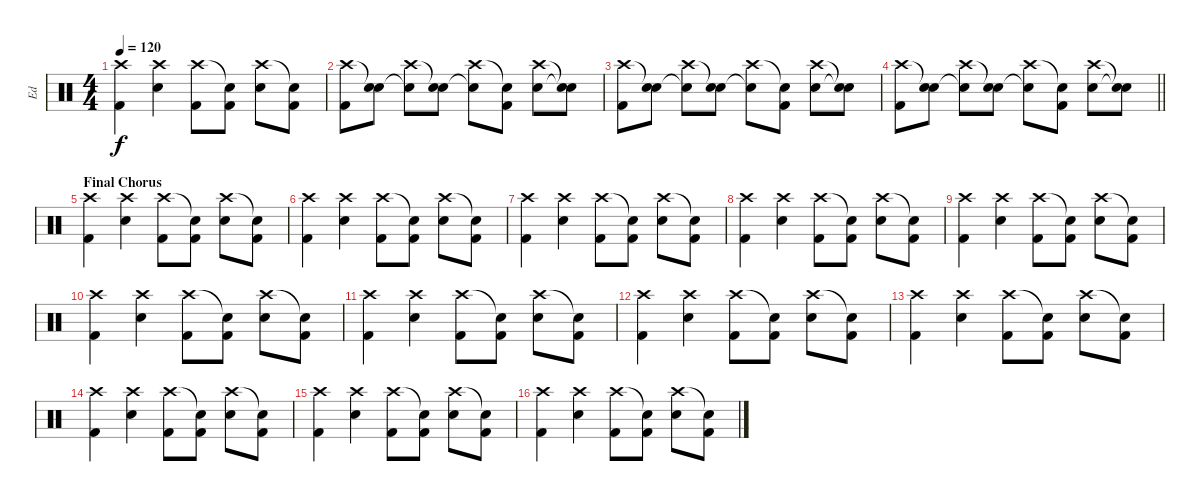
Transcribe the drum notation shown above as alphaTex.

\track ("Ed" "Ed") {instrument percussion}
\staff {score}
\articulation defaults
\ts (4 4)
\tempo 120
\clef neutral
\ks c
("Crash high (hit)" "Kick (hit) 2").4{dy f} ("Crash high (hit)" "Snare (hit) 2").4 ("Crash high (hit)" "Kick (hit) 2").8 ("Snare (hit)"{t} "Kick (hit) 2").8 ("Crash high (hit)" "Snare (hit) 2").8 ("Snare (hit)"{t} "Kick (hit) 2").8 |
("Crash high (hit)" "Kick (hit) 2").8 ("Snare (hit)"{t} "Snare (hit) 2").8 ("Crash high (hit)" "Snare (hit)"{t}).8 ("Snare (hit)"{t} "Snare (hit) 2").8 ("Crash high (hit)" "Snare (hit)"{t}).8 ("Snare (hit)"{t} "Kick (hit) 2").8 ("Crash high (hit)" "Snare (hit) 2").8 ("Snare (hit)"{t} "Snare (hit)"{t}).8 |
("Crash high (hit)" "Kick (hit) 2").8 ("Snare (hit)"{t} "Snare (hit) 2").8 ("Crash high (hit)" "Snare (hit)"{t}).8 ("Snare (hit)"{t} "Snare (hit) 2").8 ("Crash high (hit)" "Snare (hit)"{t}).8 ("Snare (hit)"{t} "Kick (hit) 2").8 ("Crash high (hit)" "Snare (hit) 2").8 ("Snare (hit)"{t} "Snare (hit)"{t}).8 |
\barLineRight lightlight
("Crash high (hit)" "Kick (hit) 2").8 ("Snare (hit)"{t} "Snare (hit) 2").8 ("Crash high (hit)" "Snare (hit)"{t}).8 ("Snare (hit)"{t} "Snare (hit) 2").8 ("Crash high (hit)" "Snare (hit)"{t}).8 ("Snare (hit)"{t} "Kick (hit) 2").8 ("Crash high (hit)" "Snare (hit) 2").8 ("Snare (hit)"{t} "Snare (hit)"{t}).8 |
\section ("" "Final Chorus")
("Crash high (hit)" "Kick (hit) 2").4 ("Crash high (hit)" "Snare (hit) 2").4 ("Crash high (hit)" "Kick (hit) 2").8 ("Snare (hit)"{t} "Kick (hit) 2").8 ("Crash high (hit)" "Snare (hit) 2").8 ("Snare (hit)"{t} "Kick (hit) 2").8 |
("Crash high (hit)" "Kick (hit) 2").4 ("Crash high (hit)" "Snare (hit) 2").4 ("Crash high (hit)" "Kick (hit) 2").8 ("Snare (hit)"{t} "Kick (hit) 2").8 ("Crash high (hit)" "Snare (hit) 2").8 ("Snare (hit)"{t} "Kick (hit) 2").8 |
("Crash high (hit)" "Kick (hit) 2").4 ("Crash high (hit)" "Snare (hit) 2").4 ("Crash high (hit)" "Kick (hit) 2").8 ("Snare (hit)"{t} "Kick (hit) 2").8 ("Crash high (hit)" "Snare (hit) 2").8 ("Snare (hit)"{t} "Kick (hit) 2").8 |
("Crash high (hit)" "Kick (hit) 2").4 ("Crash high (hit)" "Snare (hit) 2").4 ("Crash high (hit)" "Kick (hit) 2").8 ("Snare (hit)"{t} "Kick (hit) 2").8 ("Crash high (hit)" "Snare (hit) 2").8 ("Snare (hit)"{t} "Kick (hit) 2").8 |
("Crash high (hit)" "Kick (hit) 2").4 ("Crash high (hit)" "Snare (hit) 2").4 ("Crash high (hit)" "Kick (hit) 2").8 ("Snare (hit)"{t} "Kick (hit) 2").8 ("Crash high (hit)" "Snare (hit) 2").8 ("Snare (hit)"{t} "Kick (hit) 2").8 |
("Crash high (hit)" "Kick (hit) 2").4 ("Crash high (hit)" "Snare (hit) 2").4 ("Crash high (hit)" "Kick (hit) 2").8 ("Snare (hit)"{t} "Kick (hit) 2").8 ("Crash high (hit)" "Snare (hit) 2").8 ("Snare (hit)"{t} "Kick (hit) 2").8 |
("Crash high (hit)" "Kick (hit) 2").4 ("Crash high (hit)" "Snare (hit) 2").4 ("Crash high (hit)" "Kick (hit) 2").8 ("Snare (hit)"{t} "Kick (hit) 2").8 ("Crash high (hit)" "Snare (hit) 2").8 ("Snare (hit)"{t} "Kick (hit) 2").8 |
("Crash high (hit)" "Kick (hit) 2").4 ("Crash high (hit)" "Snare (hit) 2").4 ("Crash high (hit)" "Kick (hit) 2").8 ("Snare (hit)"{t} "Kick (hit) 2").8 ("Crash high (hit)" "Snare (hit) 2").8 ("Snare (hit)"{t} "Kick (hit) 2").8 |
("Crash high (hit)" "Kick (hit) 2").4 ("Crash high (hit)" "Snare (hit) 2").4 ("Crash high (hit)" "Kick (hit) 2").8 ("Snare (hit)"{t} "Kick (hit) 2").8 ("Crash high (hit)" "Snare (hit) 2").8 ("Snare (hit)"{t} "Kick (hit) 2").8 |
("Crash high (hit)" "Kick (hit) 2").4 ("Crash high (hit)" "Snare (hit) 2").4 ("Crash high (hit)" "Kick (hit) 2").8 ("Snare (hit)"{t} "Kick (hit) 2").8 ("Crash high (hit)" "Snare (hit) 2").8 ("Snare (hit)"{t} "Kick (hit) 2").8 |
("Crash high (hit)" "Kick (hit) 2").4 ("Crash high (hit)" "Snare (hit) 2").4 ("Crash high (hit)" "Kick (hit) 2").8 ("Snare (hit)"{t} "Kick (hit) 2").8 ("Crash high (hit)" "Snare (hit) 2").8 ("Snare (hit)"{t} "Kick (hit) 2").8 |
("Crash high (hit)" "Kick (hit) 2").4 ("Crash high (hit)" "Snare (hit) 2").4 ("Crash high (hit)" "Kick (hit) 2").8 ("Snare (hit)"{t} "Kick (hit) 2").8 ("Crash high (hit)" "Snare (hit) 2").8 ("Snare (hit)"{t} "Kick (hit) 2").8
